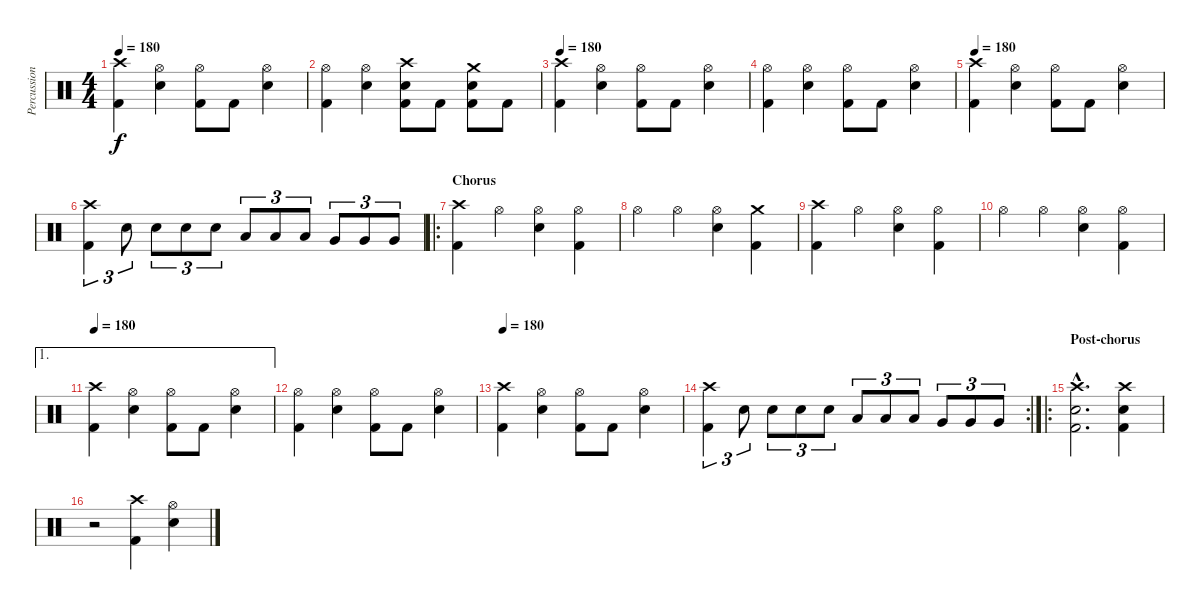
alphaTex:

\track ("Percussion" "Percussion") {instrument percussion}
\staff {score}
\articulation defaults
\ts (4 4)
\tempo 180
\clef neutral
\ks c
("Crash high (hit)" "Kick (hit) 2").4{dy f} ("Hi-Hat (open)" "Snare (hit) 2").4 ("Hi-Hat (open)" "Kick (hit) 2").8 "Kick (hit) 2".8 ("Hi-Hat (open)" "Snare (hit) 2").4 |
("Hi-Hat (open)" "Kick (hit) 2").4 ("Hi-Hat (open)" "Snare (hit) 2").4 ("Crash high (hit)" "Snare (hit) 2" "Kick (hit) 2").8 "Kick (hit) 2".8 ("Crash medium (hit)" "Snare (hit) 2" "Kick (hit) 2").8 "Kick (hit) 2".8 |
\tempo 180
("Crash high (hit)" "Kick (hit) 2").4 ("Hi-Hat (open)" "Snare (hit) 2").4 ("Hi-Hat (open)" "Kick (hit) 2").8 "Kick (hit) 2".8 ("Hi-Hat (open)" "Snare (hit) 2").4 |
("Hi-Hat (open)" "Kick (hit) 2").4 ("Hi-Hat (open)" "Snare (hit) 2").4 ("Hi-Hat (open)" "Kick (hit) 2").8 "Kick (hit) 2".8 ("Hi-Hat (open)" "Snare (hit) 2").4 |
\tempo 180
("Crash high (hit)" "Kick (hit) 2").4 ("Hi-Hat (open)" "Snare (hit) 2").4 ("Hi-Hat (open)" "Kick (hit) 2").8 "Kick (hit) 2".8 ("Hi-Hat (open)" "Snare (hit) 2").4 |
("Crash high (hit)" "Kick (hit) 2").4{tu (3 2)} "Snare (hit) 2".8{tu (3 2)} "Snare (hit) 2".8{tu (3 2)} "Snare (hit) 2".8{tu (3 2)} "Snare (hit) 2".8{tu (3 2)} "Low Tom (hit)".8{tu (3 2)} "Low Tom (hit)".8{tu (3 2)} "Low Tom (hit)".8{tu (3 2)} "Very Low Tom (hit)".8{tu (3 2)} "Very Low Tom (hit)".8{tu (3 2)} "Very Low Tom (hit)".8{tu (3 2)} |
\ro
\section ("" "Chorus")
("Crash high (hit)" "Kick (hit) 2").4 "Hi-Hat (open)".4 ("Hi-Hat (open)" "Snare (hit) 2").4 ("Hi-Hat (open)" "Kick (hit) 2").4 |
"Hi-Hat (open)".4 "Hi-Hat (open)".4 ("Hi-Hat (open)" "Snare (hit) 2").4 ("Crash medium (hit)" "Kick (hit) 2").4 |
("Crash high (hit)" "Kick (hit) 2").4 "Hi-Hat (open)".4 ("Hi-Hat (open)" "Snare (hit) 2").4 ("Hi-Hat (open)" "Kick (hit) 2").4 |
"Hi-Hat (open)".4 "Hi-Hat (open)".4 ("Hi-Hat (open)" "Snare (hit) 2").4 ("Hi-Hat (open)" "Kick (hit) 2").4 |
\ae 1
\tempo 180
("Crash high (hit)" "Kick (hit) 2").4 ("Hi-Hat (open)" "Snare (hit) 2").4 ("Hi-Hat (open)" "Kick (hit) 2").8 "Kick (hit) 2".8 ("Hi-Hat (open)" "Snare (hit) 2").4 |
("Hi-Hat (open)" "Kick (hit) 2").4 ("Hi-Hat (open)" "Snare (hit) 2").4 ("Hi-Hat (open)" "Kick (hit) 2").8 "Kick (hit) 2".8 ("Hi-Hat (open)" "Snare (hit) 2").4 |
\tempo 180
("Crash high (hit)" "Kick (hit) 2").4 ("Hi-Hat (open)" "Snare (hit) 2").4 ("Hi-Hat (open)" "Kick (hit) 2").8 "Kick (hit) 2".8 ("Hi-Hat (open)" "Snare (hit) 2").4 |
\rc 2
("Crash high (hit)" "Kick (hit) 2").4{tu (3 2)} "Snare (hit) 2".8{tu (3 2)} "Snare (hit) 2".8{tu (3 2)} "Snare (hit) 2".8{tu (3 2)} "Snare (hit) 2".8{tu (3 2)} "Low Tom (hit)".8{tu (3 2)} "Low Tom (hit)".8{tu (3 2)} "Low Tom (hit)".8{tu (3 2)} "Very Low Tom (hit)".8{tu (3 2)} "Very Low Tom (hit)".8{tu (3 2)} "Very Low Tom (hit)".8{tu (3 2)} |
\ro
\section ("" "Post-chorus")
("Crash high (hit)"{hac} "Snare (hit) 2"{hac} "Kick (hit) 2"{hac}).2{d} ("Crash high (hit)" "Snare (hit) 2" "Kick (hit) 2").4 |
r.2 ("Crash high (hit)" "Kick (hit) 2").4 ("Hi-Hat (open)" "Snare (hit) 2").4
